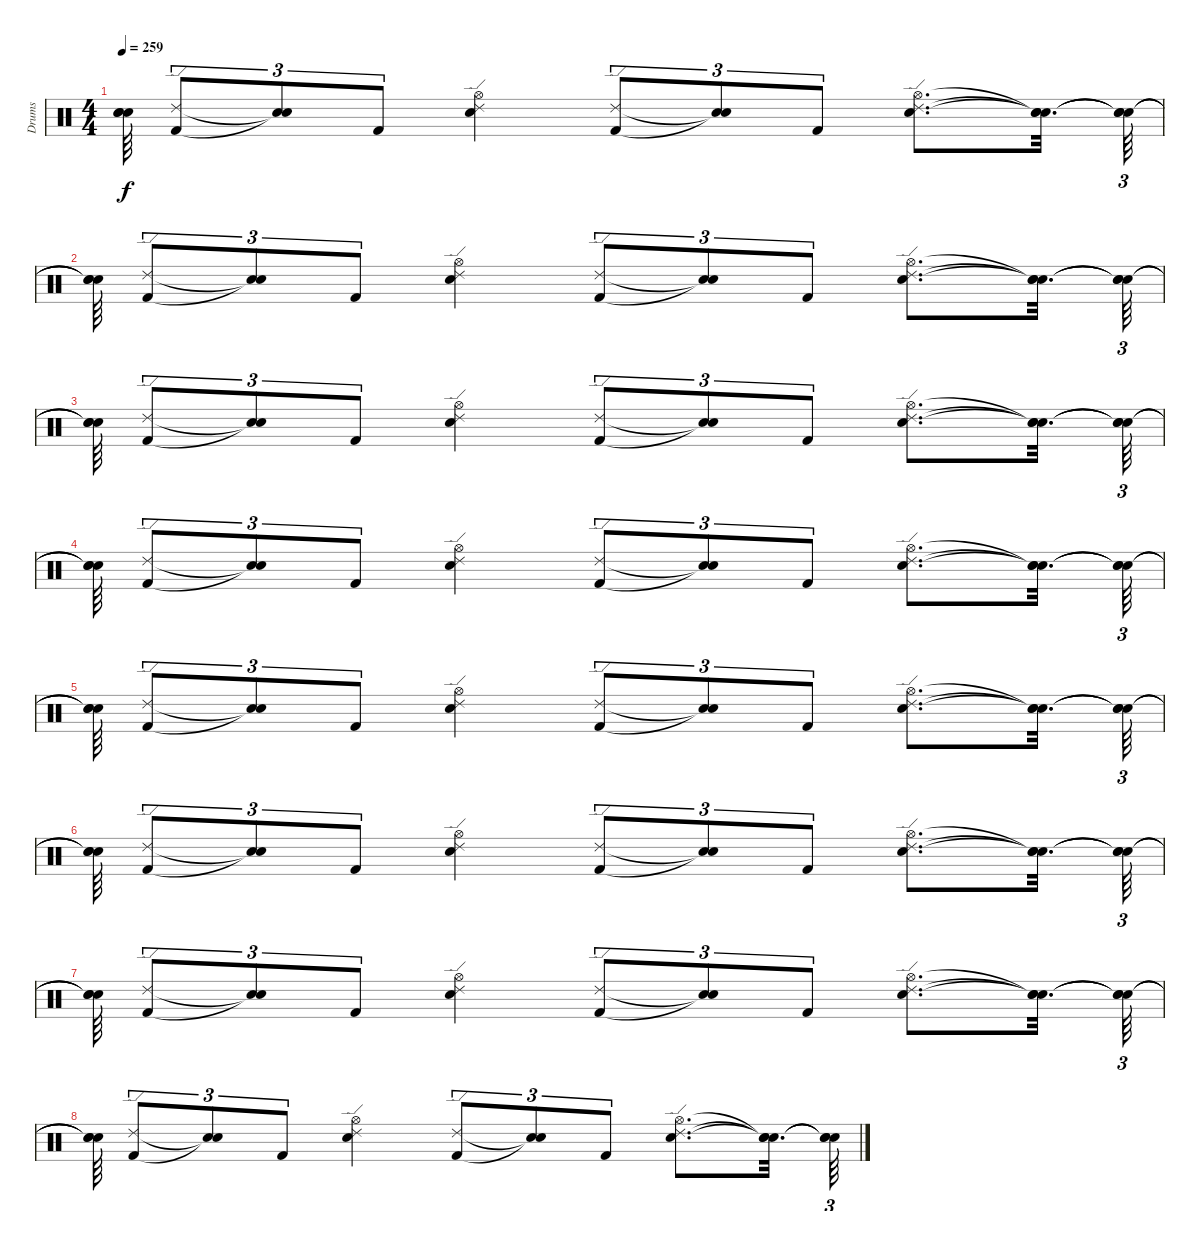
\track ("Drums" "Drums") {instrument percussion}
\staff {score}
\articulation defaults
\ts (4 4)
\tempo 259
\clef neutral
\ks c
("Snare (hit)"{t} "Snare (hit)"{t} "Snare (hit)"{t}).64{dy f} ("Kick (hit) 2" "Ride (edge) 2").8{tu (3 2)} ("Snare (hit)"{t} "Snare (hit)"{t}).8{tu (3 2)} "Kick (hit) 2".8{tu (3 2)} ("Electric Snare (hit)" "Ride (edge) 2" "Hi-Hat (open)").4 ("Kick (hit) 2" "Ride (edge) 2").8{tu (3 2)} ("Snare (hit)"{t} "Snare (hit)"{t}).8{tu (3 2)} "Kick (hit) 2".8{tu (3 2)} ("Electric Snare (hit)" "Ride (edge) 2" "Hi-Hat (open)").8{d} ("Snare (hit)"{t} "Snare (hit)"{t} "Snare (hit)"{t}).32{d} ("Snare (hit)"{t} "Snare (hit)"{t} "Snare (hit)"{t}).64{tu (3 2)} |
("Snare (hit)"{t} "Snare (hit)"{t} "Snare (hit)"{t}).64 ("Kick (hit) 2" "Ride (edge) 2").8{tu (3 2)} ("Snare (hit)"{t} "Snare (hit)"{t}).8{tu (3 2)} "Kick (hit) 2".8{tu (3 2)} ("Electric Snare (hit)" "Ride (edge) 2" "Hi-Hat (open)").4 ("Kick (hit) 2" "Ride (edge) 2").8{tu (3 2)} ("Snare (hit)"{t} "Snare (hit)"{t}).8{tu (3 2)} "Kick (hit) 2".8{tu (3 2)} ("Electric Snare (hit)" "Ride (edge) 2" "Hi-Hat (open)").8{d} ("Snare (hit)"{t} "Snare (hit)"{t} "Snare (hit)"{t}).32{d} ("Snare (hit)"{t} "Snare (hit)"{t} "Snare (hit)"{t}).64{tu (3 2)} |
("Snare (hit)"{t} "Snare (hit)"{t} "Snare (hit)"{t}).64 ("Kick (hit) 2" "Ride (edge) 2").8{tu (3 2)} ("Snare (hit)"{t} "Snare (hit)"{t}).8{tu (3 2)} "Kick (hit) 2".8{tu (3 2)} ("Electric Snare (hit)" "Ride (edge) 2" "Hi-Hat (open)").4 ("Kick (hit) 2" "Ride (edge) 2").8{tu (3 2)} ("Snare (hit)"{t} "Snare (hit)"{t}).8{tu (3 2)} "Kick (hit) 2".8{tu (3 2)} ("Electric Snare (hit)" "Ride (edge) 2" "Hi-Hat (open)").8{d} ("Snare (hit)"{t} "Snare (hit)"{t} "Snare (hit)"{t}).32{d} ("Snare (hit)"{t} "Snare (hit)"{t} "Snare (hit)"{t}).64{tu (3 2)} |
("Snare (hit)"{t} "Snare (hit)"{t} "Snare (hit)"{t}).64 ("Kick (hit) 2" "Ride (edge) 2").8{tu (3 2)} ("Snare (hit)"{t} "Snare (hit)"{t}).8{tu (3 2)} "Kick (hit) 2".8{tu (3 2)} ("Electric Snare (hit)" "Ride (edge) 2" "Hi-Hat (open)").4 ("Kick (hit) 2" "Ride (edge) 2").8{tu (3 2)} ("Snare (hit)"{t} "Snare (hit)"{t}).8{tu (3 2)} "Kick (hit) 2".8{tu (3 2)} ("Electric Snare (hit)" "Ride (edge) 2" "Hi-Hat (open)").8{d} ("Snare (hit)"{t} "Snare (hit)"{t} "Snare (hit)"{t}).32{d} ("Snare (hit)"{t} "Snare (hit)"{t} "Snare (hit)"{t}).64{tu (3 2)} |
("Snare (hit)"{t} "Snare (hit)"{t} "Snare (hit)"{t}).64 ("Kick (hit) 2" "Ride (edge) 2").8{tu (3 2)} ("Snare (hit)"{t} "Snare (hit)"{t}).8{tu (3 2)} "Kick (hit) 2".8{tu (3 2)} ("Electric Snare (hit)" "Ride (edge) 2" "Hi-Hat (open)").4 ("Kick (hit) 2" "Ride (edge) 2").8{tu (3 2)} ("Snare (hit)"{t} "Snare (hit)"{t}).8{tu (3 2)} "Kick (hit) 2".8{tu (3 2)} ("Electric Snare (hit)" "Ride (edge) 2" "Hi-Hat (open)").8{d} ("Snare (hit)"{t} "Snare (hit)"{t} "Snare (hit)"{t}).32{d} ("Snare (hit)"{t} "Snare (hit)"{t} "Snare (hit)"{t}).64{tu (3 2)} |
("Snare (hit)"{t} "Snare (hit)"{t} "Snare (hit)"{t}).64 ("Kick (hit) 2" "Ride (edge) 2").8{tu (3 2)} ("Snare (hit)"{t} "Snare (hit)"{t}).8{tu (3 2)} "Kick (hit) 2".8{tu (3 2)} ("Electric Snare (hit)" "Ride (edge) 2" "Hi-Hat (open)").4 ("Kick (hit) 2" "Ride (edge) 2").8{tu (3 2)} ("Snare (hit)"{t} "Snare (hit)"{t}).8{tu (3 2)} "Kick (hit) 2".8{tu (3 2)} ("Electric Snare (hit)" "Ride (edge) 2" "Hi-Hat (open)").8{d} ("Snare (hit)"{t} "Snare (hit)"{t} "Snare (hit)"{t}).32{d} ("Snare (hit)"{t} "Snare (hit)"{t} "Snare (hit)"{t}).64{tu (3 2)} |
("Snare (hit)"{t} "Snare (hit)"{t} "Snare (hit)"{t}).64 ("Kick (hit) 2" "Ride (edge) 2").8{tu (3 2)} ("Snare (hit)"{t} "Snare (hit)"{t}).8{tu (3 2)} "Kick (hit) 2".8{tu (3 2)} ("Electric Snare (hit)" "Ride (edge) 2" "Hi-Hat (open)").4 ("Kick (hit) 2" "Ride (edge) 2").8{tu (3 2)} ("Snare (hit)"{t} "Snare (hit)"{t}).8{tu (3 2)} "Kick (hit) 2".8{tu (3 2)} ("Electric Snare (hit)" "Ride (edge) 2" "Hi-Hat (open)").8{d} ("Snare (hit)"{t} "Snare (hit)"{t} "Snare (hit)"{t}).32{d} ("Snare (hit)"{t} "Snare (hit)"{t} "Snare (hit)"{t}).64{tu (3 2)} |
("Snare (hit)"{t} "Snare (hit)"{t} "Snare (hit)"{t}).64 ("Kick (hit) 2" "Ride (edge) 2").8{tu (3 2)} ("Snare (hit)"{t} "Snare (hit)"{t}).8{tu (3 2)} "Kick (hit) 2".8{tu (3 2)} ("Electric Snare (hit)" "Ride (edge) 2" "Hi-Hat (open)").4 ("Kick (hit) 2" "Ride (edge) 2").8{tu (3 2)} ("Snare (hit)"{t} "Snare (hit)"{t}).8{tu (3 2)} "Kick (hit) 2".8{tu (3 2)} ("Electric Snare (hit)" "Ride (edge) 2" "Hi-Hat (open)").8{d} ("Snare (hit)"{t} "Snare (hit)"{t} "Snare (hit)"{t}).32{d} ("Snare (hit)"{t} "Snare (hit)"{t} "Snare (hit)"{t}).64{tu (3 2)}
